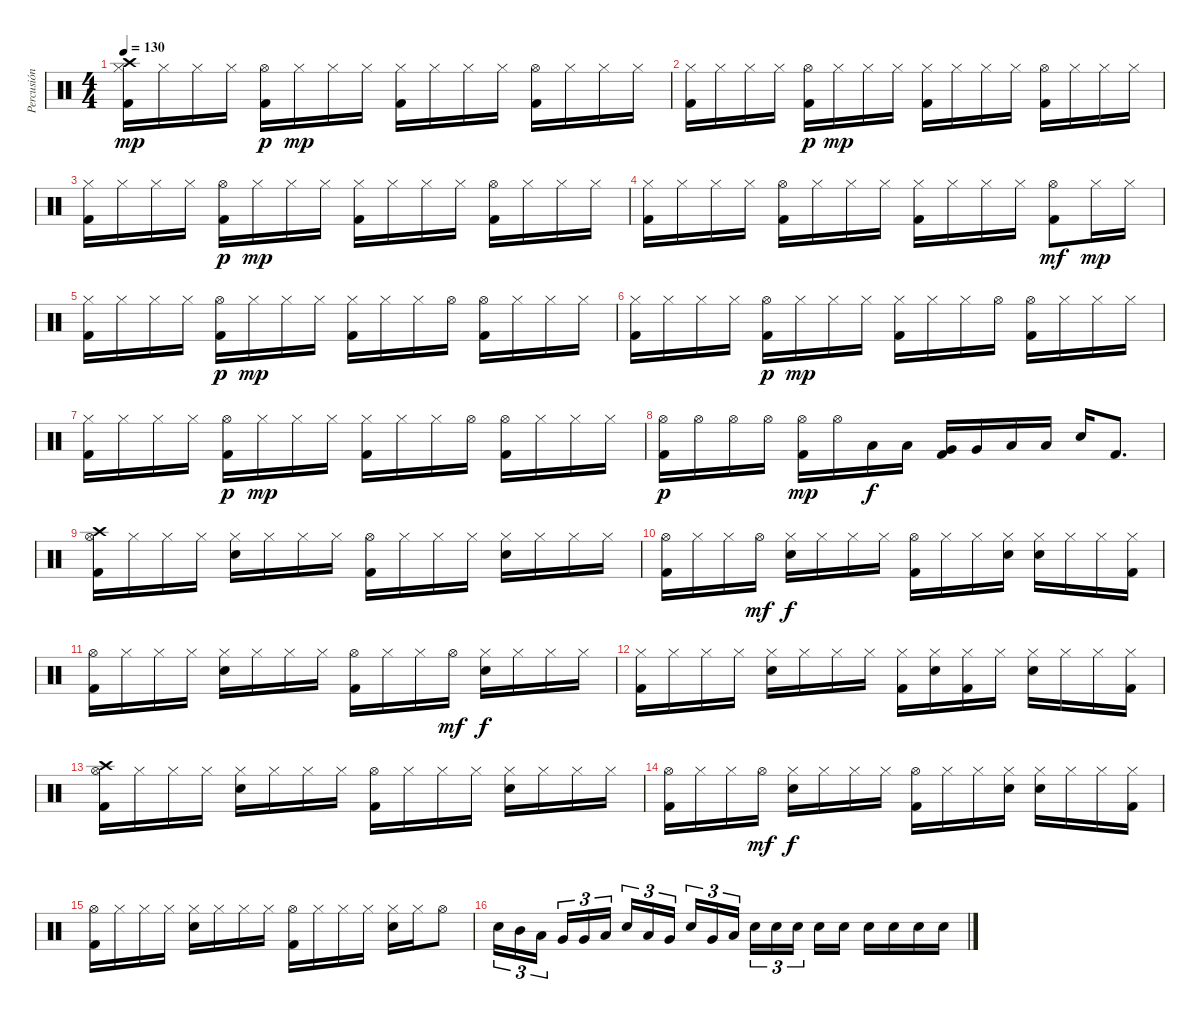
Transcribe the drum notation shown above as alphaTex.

\track ("Percusión" "Percusión") {instrument percussion}
\staff {score}
\articulation defaults
\ts (4 4)
\tempo 130
\clef neutral
\ks c
("Crash high (hit)" "Hi-Hat (closed)" "Kick (hit) 2").16{dy mp} "Hi-Hat (closed)".16 "Hi-Hat (closed)".16 "Hi-Hat (closed)".16 ("Hi-Hat (open)" "Kick (hit) 2").16{dy p} "Hi-Hat (closed)".16{dy mp} "Hi-Hat (closed)".16 "Hi-Hat (closed)".16 ("Hi-Hat (closed)" "Kick (hit) 2").16 "Hi-Hat (closed)".16 "Hi-Hat (closed)".16 "Hi-Hat (closed)".16 ("Hi-Hat (open)" "Kick (hit) 2").16 "Hi-Hat (closed)".16 "Hi-Hat (closed)".16 "Hi-Hat (closed)".16 |
("Hi-Hat (closed)" "Kick (hit) 2").16 "Hi-Hat (closed)".16 "Hi-Hat (closed)".16 "Hi-Hat (closed)".16 ("Hi-Hat (open)" "Kick (hit) 2").16{dy p} "Hi-Hat (closed)".16{dy mp} "Hi-Hat (closed)".16 "Hi-Hat (closed)".16 ("Hi-Hat (closed)" "Kick (hit) 2").16 "Hi-Hat (closed)".16 "Hi-Hat (closed)".16 "Hi-Hat (closed)".16 ("Hi-Hat (open)" "Kick (hit) 2").16 "Hi-Hat (closed)".16 "Hi-Hat (closed)".16 "Hi-Hat (closed)".16 |
("Hi-Hat (closed)" "Kick (hit) 2").16 "Hi-Hat (closed)".16 "Hi-Hat (closed)".16 "Hi-Hat (closed)".16 ("Hi-Hat (open)" "Kick (hit) 2").16{dy p} "Hi-Hat (closed)".16{dy mp} "Hi-Hat (closed)".16 "Hi-Hat (closed)".16 ("Hi-Hat (closed)" "Kick (hit) 2").16 "Hi-Hat (closed)".16 "Hi-Hat (closed)".16 "Hi-Hat (closed)".16 ("Hi-Hat (open)" "Kick (hit) 2").16 "Hi-Hat (closed)".16 "Hi-Hat (closed)".16 "Hi-Hat (closed)".16 |
("Hi-Hat (closed)" "Kick (hit) 2").16 "Hi-Hat (closed)".16 "Hi-Hat (closed)".16 "Hi-Hat (closed)".16 ("Hi-Hat (open)" "Kick (hit) 2").16 "Hi-Hat (closed)".16 "Hi-Hat (closed)".16 "Hi-Hat (closed)".16 ("Hi-Hat (closed)" "Kick (hit) 2").16 "Hi-Hat (closed)".16 "Hi-Hat (closed)".16 "Hi-Hat (closed)".16 ("Hi-Hat (open)" "Kick (hit) 2").8{dy mf} "Hi-Hat (closed)".16{dy mp} "Hi-Hat (closed)".16 |
("Hi-Hat (closed)" "Kick (hit) 2").16 "Hi-Hat (closed)".16 "Hi-Hat (closed)".16 "Hi-Hat (closed)".16 ("Hi-Hat (open)" "Kick (hit) 2").16{dy p} "Hi-Hat (closed)".16{dy mp} "Hi-Hat (closed)".16 "Hi-Hat (closed)".16 ("Hi-Hat (closed)" "Kick (hit) 2").16 "Hi-Hat (closed)".16 "Hi-Hat (closed)".16 "Hi-Hat (open)".16 ("Hi-Hat (open)" "Kick (hit) 2").16 "Hi-Hat (closed)".16 "Hi-Hat (closed)".16 "Hi-Hat (closed)".16 |
("Hi-Hat (closed)" "Kick (hit) 2").16 "Hi-Hat (closed)".16 "Hi-Hat (closed)".16 "Hi-Hat (closed)".16 ("Hi-Hat (open)" "Kick (hit) 2").16{dy p} "Hi-Hat (closed)".16{dy mp} "Hi-Hat (closed)".16 "Hi-Hat (closed)".16 ("Hi-Hat (closed)" "Kick (hit) 2").16 "Hi-Hat (closed)".16 "Hi-Hat (closed)".16 "Hi-Hat (open)".16 ("Hi-Hat (open)" "Kick (hit) 2").16 "Hi-Hat (closed)".16 "Hi-Hat (closed)".16 "Hi-Hat (closed)".16 |
("Hi-Hat (closed)" "Kick (hit) 2").16 "Hi-Hat (closed)".16 "Hi-Hat (closed)".16 "Hi-Hat (closed)".16 ("Hi-Hat (open)" "Kick (hit) 2").16{dy p} "Hi-Hat (closed)".16{dy mp} "Hi-Hat (closed)".16 "Hi-Hat (closed)".16 ("Hi-Hat (closed)" "Kick (hit) 2").16 "Hi-Hat (closed)".16 "Hi-Hat (closed)".16 "Hi-Hat (open)".16 ("Hi-Hat (open)" "Kick (hit) 2").16 "Hi-Hat (closed)".16 "Hi-Hat (closed)".16 "Hi-Hat (closed)".16 |
("Hi-Hat (open)" "Kick (hit) 2").16{dy p} "Hi-Hat (open)".16 "Hi-Hat (open)".16 "Hi-Hat (open)".16 ("Hi-Hat (open)" "Kick (hit) 2").16{dy mp} "Hi-Hat (open)".16 "Low Tom (hit)".16{dy f} "Low Tom (hit)".16 ("Very Low Tom (hit)" "Kick (hit) 2").16 "Very Low Tom (hit)".16 "Low Floor Tom (hit)".16 "Low Floor Tom (hit)".16 "Snare (hit) 2".16 "Kick (hit) 2".8{d} |
("Crash high (hit)" "Hi-Hat (open)" "Kick (hit) 2").16 "Hi-Hat (closed)".16 "Hi-Hat (closed)".16 "Hi-Hat (closed)".16 ("Hi-Hat (closed)" "Snare (hit) 2").16 "Hi-Hat (closed)".16 "Hi-Hat (closed)".16 "Hi-Hat (closed)".16 ("Hi-Hat (open)" "Kick (hit) 2").16 "Hi-Hat (closed)".16 "Hi-Hat (closed)".16 "Hi-Hat (closed)".16 ("Hi-Hat (closed)" "Snare (hit) 2").16 "Hi-Hat (closed)".16 "Hi-Hat (closed)".16 "Hi-Hat (closed)".16 |
("Hi-Hat (open)" "Kick (hit) 2").16 "Hi-Hat (closed)".16 "Hi-Hat (closed)".16 "Hi-Hat (open)".16{dy mf} ("Hi-Hat (closed)" "Snare (hit) 2").16{dy f} "Hi-Hat (closed)".16 "Hi-Hat (closed)".16 "Hi-Hat (closed)".16 ("Hi-Hat (open)" "Kick (hit) 2").16 "Hi-Hat (closed)".16 "Hi-Hat (closed)".16 ("Hi-Hat (closed)" "Snare (hit) 2").16 ("Hi-Hat (closed)" "Snare (hit) 2").16 "Hi-Hat (closed)".16 "Hi-Hat (closed)".16 ("Hi-Hat (closed)" "Kick (hit) 2").16 |
("Hi-Hat (open)" "Kick (hit) 2").16 "Hi-Hat (closed)".16 "Hi-Hat (closed)".16 "Hi-Hat (closed)".16 ("Hi-Hat (closed)" "Snare (hit) 2").16 "Hi-Hat (closed)".16 "Hi-Hat (closed)".16 "Hi-Hat (closed)".16 ("Hi-Hat (open)" "Kick (hit) 2").16 "Hi-Hat (closed)".16 "Hi-Hat (closed)".16 "Hi-Hat (open)".16{dy mf} ("Hi-Hat (closed)" "Snare (hit) 2").16{dy f} "Hi-Hat (closed)".16 "Hi-Hat (closed)".16 "Hi-Hat (closed)".16 |
("Hi-Hat (closed)" "Kick (hit) 2").16 "Hi-Hat (closed)".16 "Hi-Hat (closed)".16 "Hi-Hat (closed)".16 ("Hi-Hat (closed)" "Snare (hit) 2").16 "Hi-Hat (closed)".16 "Hi-Hat (closed)".16 "Hi-Hat (closed)".16 ("Hi-Hat (closed)" "Kick (hit) 2").16 ("Hi-Hat (closed)" "Snare (hit) 2").16 ("Hi-Hat (closed)" "Kick (hit) 2").16 "Hi-Hat (closed)".16 ("Hi-Hat (closed)" "Snare (hit) 2").16 "Hi-Hat (closed)".16 "Hi-Hat (closed)".16 ("Hi-Hat (closed)" "Kick (hit) 2").16 |
("Crash high (hit)" "Hi-Hat (open)" "Kick (hit) 2").16 "Hi-Hat (closed)".16 "Hi-Hat (closed)".16 "Hi-Hat (closed)".16 ("Hi-Hat (closed)" "Snare (hit) 2").16 "Hi-Hat (closed)".16 "Hi-Hat (closed)".16 "Hi-Hat (closed)".16 ("Hi-Hat (open)" "Kick (hit) 2").16 "Hi-Hat (closed)".16 "Hi-Hat (closed)".16 "Hi-Hat (closed)".16 ("Hi-Hat (closed)" "Snare (hit) 2").16 "Hi-Hat (closed)".16 "Hi-Hat (closed)".16 "Hi-Hat (closed)".16 |
("Hi-Hat (open)" "Kick (hit) 2").16 "Hi-Hat (closed)".16 "Hi-Hat (closed)".16 "Hi-Hat (open)".16{dy mf} ("Hi-Hat (closed)" "Snare (hit) 2").16{dy f} "Hi-Hat (closed)".16 "Hi-Hat (closed)".16 "Hi-Hat (closed)".16 ("Hi-Hat (open)" "Kick (hit) 2").16 "Hi-Hat (closed)".16 "Hi-Hat (closed)".16 ("Hi-Hat (closed)" "Snare (hit) 2").16 ("Hi-Hat (closed)" "Snare (hit) 2").16 "Hi-Hat (closed)".16 "Hi-Hat (closed)".16 ("Hi-Hat (closed)" "Kick (hit) 2").16 |
("Hi-Hat (open)" "Kick (hit) 2").16 "Hi-Hat (closed)".16 "Hi-Hat (closed)".16 "Hi-Hat (closed)".16 ("Hi-Hat (closed)" "Snare (hit) 2").16 "Hi-Hat (closed)".16 "Hi-Hat (closed)".16 "Hi-Hat (closed)".16 ("Hi-Hat (open)" "Kick (hit) 2").16 "Hi-Hat (closed)".16 "Hi-Hat (closed)".16 "Hi-Hat (closed)".16 ("Hi-Hat (closed)" "Snare (hit) 2").16 "Hi-Hat (closed)".16 "Hi-Hat (open)".8 |
"Snare (hit) 2".16{tu (3 2)} "Mid Tom (hit)".16{tu (3 2)} "Low Tom (hit)".16{tu (3 2) beam splitsecondary} "Very Low Tom (hit)".16{tu (3 2)} "Very Low Tom (hit)".16{tu (3 2)} "Low Floor Tom (hit)".16{tu (3 2)} "Snare (hit) 2".16{tu (3 2)} "Low Tom (hit)".16{tu (3 2)} "Very Low Tom (hit)".16{tu (3 2) beam splitsecondary} "Snare (hit) 2".16{tu (3 2)} "Very Low Tom (hit)".16{tu (3 2)} "Low Floor Tom (hit)".16{tu (3 2)} "Snare (hit) 2".16{tu (3 2)} "Snare (hit) 2".16{tu (3 2)} "Snare (hit) 2".16{tu (3 2) beam splitsecondary} "Snare (hit) 2".16 "Snare (hit) 2".16 "Snare (hit) 2".16 "Snare (hit) 2".16 "Snare (hit) 2".16 "Snare (hit) 2".16
